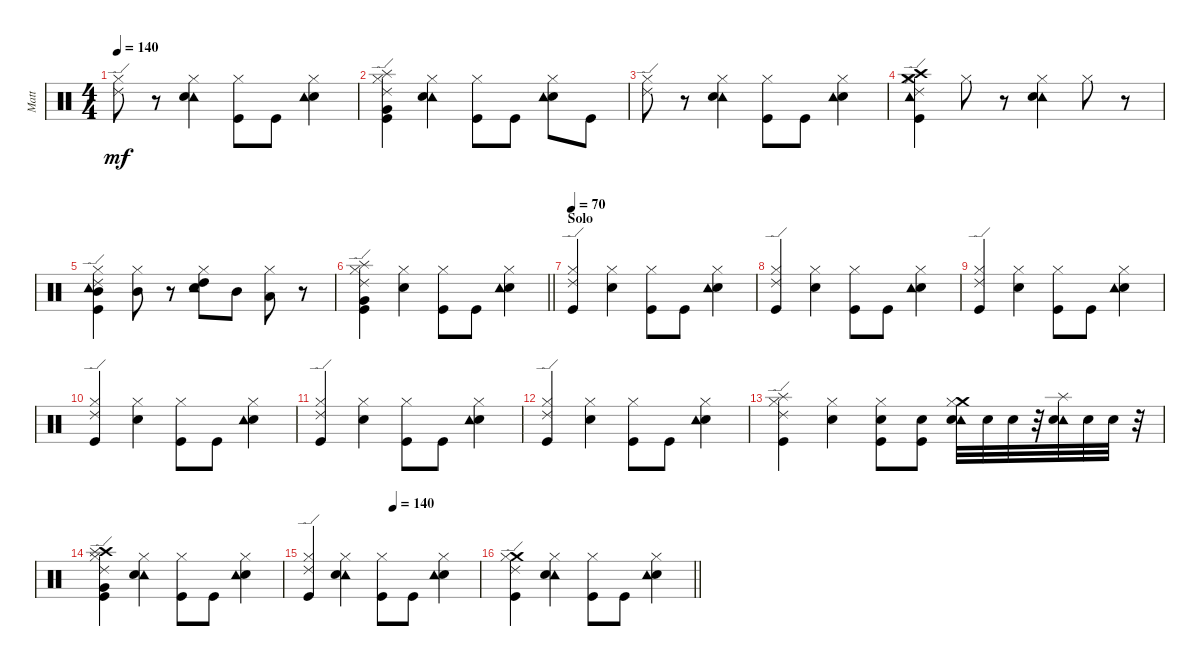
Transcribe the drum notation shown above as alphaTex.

\track ("Matt" "Matt") {instrument percussion}
\staff {score}
\articulation defaults
\ts (4 4)
\tempo 140
\clef neutral
\ks c
("Ride (edge) 2" "Hi-Hat (closed)").8{dy mf} r.8 ("Tambourine (hit)" "Hi-Hat (closed)" "Electric Snare (hit)").4 ("Hi-Hat (closed)" "Kick (hit)").8 "Kick (hit)".8 ("Electric Snare (hit)" "Tambourine (hit)" "Hi-Hat (closed)").4 |
("Splash (hit)" "Very Low Tom (hit)" "Ride (edge) 2" "Hi-Hat (closed)" "Kick (hit)").4 ("Tambourine (hit)" "Hi-Hat (closed)" "Electric Snare (hit)").4 ("Hi-Hat (closed)" "Kick (hit)").8 "Kick (hit)".8 ("Electric Snare (hit)" "Tambourine (hit)" "Hi-Hat (closed)").8 "Kick (hit)".8 |
("Ride (edge) 2" "Hi-Hat (closed)").8 r.8 ("Tambourine (hit)" "Hi-Hat (closed)" "Electric Snare (hit)").4 ("Hi-Hat (closed)" "Kick (hit)").8 "Kick (hit)".8 ("Electric Snare (hit)" "Tambourine (hit)" "Hi-Hat (closed)").4 |
("Crash high (hit)" "Crash medium (hit)" "Tambourine (hit)" "Ride (edge) 2" "Hi-Hat (closed)" "Kick (hit)").4 "Hi-Hat (closed)".8 r.8 ("Tambourine (hit)" "Electric Snare (hit)" "Hi-Hat (closed)").4 "Hi-Hat (closed)".8 r.8 |
("Tambourine (hit)" "Mid Tom (hit)" "Ride (edge) 2" "Hi-Hat (closed)" "Kick (hit)").4 ("Hi-Hat (closed)" "Mid Tom (hit)").8 r.8 ("Tambourine (hit)" "High Tom (hit)" "Electric Snare (hit)" "Hi-Hat (closed)").8 "Mid Tom (hit)".8 ("Hi-Hat (closed)" "Low Tom (hit)").8 r.8 |
\barLineRight lightlight
("Splash (hit)" "Very Low Tom (hit)" "Ride (edge) 2" "Hi-Hat (closed)" "Kick (hit)").4 ("Hi-Hat (closed)" "Electric Snare (hit)").4 ("Hi-Hat (closed)" "Kick (hit)").8 "Kick (hit)".8 ("Electric Snare (hit)" "Tambourine (hit)" "Hi-Hat (closed)").4 |
\section ("" "Solo")
\tempo 70
("Ride (edge) 2" "Hi-Hat (closed)" "Kick (hit)").4 ("Hi-Hat (closed)" "Electric Snare (hit)").4 ("Hi-Hat (closed)" "Kick (hit)").8 "Kick (hit)".8 ("Electric Snare (hit)" "Tambourine (hit)" "Hi-Hat (closed)").4 |
("Ride (edge) 2" "Hi-Hat (closed)" "Kick (hit)").4 ("Hi-Hat (closed)" "Electric Snare (hit)").4 ("Hi-Hat (closed)" "Kick (hit)").8 "Kick (hit)".8 ("Electric Snare (hit)" "Tambourine (hit)" "Hi-Hat (closed)").4 |
("Ride (edge) 2" "Hi-Hat (closed)" "Kick (hit)").4 ("Hi-Hat (closed)" "Electric Snare (hit)").4 ("Hi-Hat (closed)" "Kick (hit)").8 "Kick (hit)".8 ("Electric Snare (hit)" "Tambourine (hit)" "Hi-Hat (closed)").4 |
("Ride (edge) 2" "Hi-Hat (closed)" "Kick (hit)").4 ("Hi-Hat (closed)" "Electric Snare (hit)").4 ("Hi-Hat (closed)" "Kick (hit)").8 "Kick (hit)".8 ("Electric Snare (hit)" "Tambourine (hit)" "Hi-Hat (closed)").4 |
("Ride (edge) 2" "Hi-Hat (closed)" "Kick (hit)").4 ("Hi-Hat (closed)" "Electric Snare (hit)").4 ("Hi-Hat (closed)" "Kick (hit)").8 "Kick (hit)".8 ("Electric Snare (hit)" "Tambourine (hit)" "Hi-Hat (closed)").4 |
("Ride (edge) 2" "Hi-Hat (closed)" "Kick (hit)").4 ("Hi-Hat (closed)" "Electric Snare (hit)").4 ("Hi-Hat (closed)" "Kick (hit)").8 "Kick (hit)".8 ("Electric Snare (hit)" "Tambourine (hit)" "Hi-Hat (closed)").4 |
("Splash (hit)" "Ride (edge) 2" "Hi-Hat (closed)" "Kick (hit)").4 ("Hi-Hat (closed)" "Electric Snare (hit)").4 ("Snare (hit) 2" "Hi-Hat (closed)" "Kick (hit)").8 ("Snare (hit) 2" "Kick (hit)").8 ("Crash medium (hit)" "Tambourine (hit)" "Snare (hit) 2" "Hi-Hat (closed)").32 "Snare (hit) 2".32 "Snare (hit) 2".32 r.32 ("Tambourine (hit)" "Splash (hit)" "Snare (hit) 2").32 "Snare (hit) 2".32 "Snare (hit) 2".32 r.32 |
("Crash high (hit)" "Splash (hit)" "Very Low Tom (hit)" "Ride (edge) 2" "Hi-Hat (closed)" "Kick (hit)").4 ("Tambourine (hit)" "Hi-Hat (closed)" "Electric Snare (hit)").4 ("Hi-Hat (closed)" "Kick (hit)").8 "Kick (hit)".8 ("Electric Snare (hit)" "Tambourine (hit)" "Hi-Hat (closed)").4 |
\tempo (140 0.5)
("Ride (edge) 2" "Hi-Hat (closed)" "Kick (hit)").4 ("Tambourine (hit)" "Hi-Hat (closed)" "Electric Snare (hit)").4 ("Hi-Hat (closed)" "Kick (hit)").8 "Kick (hit)".8 ("Electric Snare (hit)" "Tambourine (hit)" "Hi-Hat (closed)").4 |
\barLineRight lightlight
("Crash medium (hit)" "Ride (edge) 2" "Hi-Hat (closed)" "Kick (hit)").4 ("Tambourine (hit)" "Hi-Hat (closed)" "Electric Snare (hit)").4 ("Hi-Hat (closed)" "Kick (hit)").8 "Kick (hit)".8 ("Electric Snare (hit)" "Tambourine (hit)" "Hi-Hat (closed)").4
